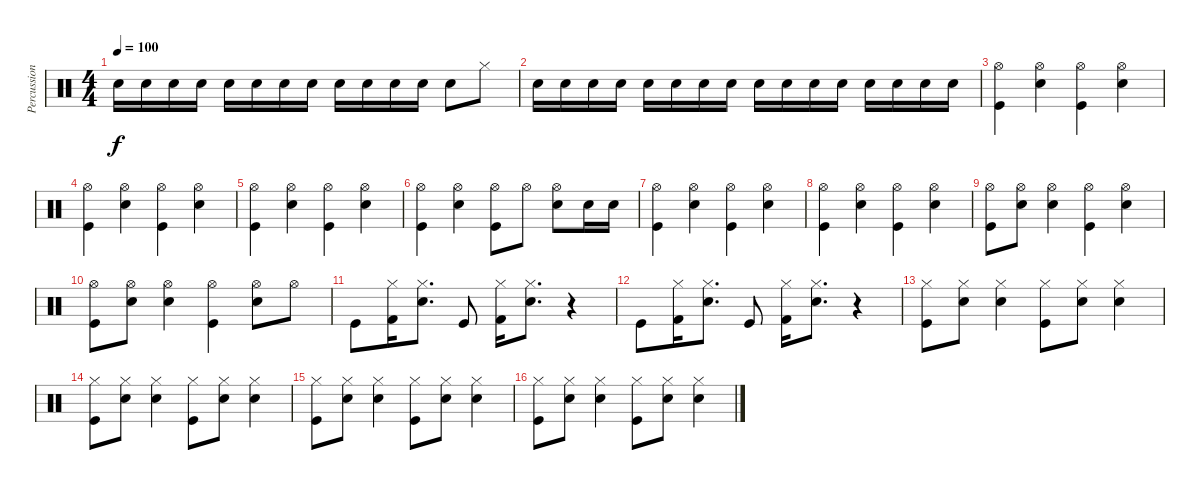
\track ("Percussion" "Percussion") {instrument percussion}
\staff {score}
\articulation defaults
\ts (4 4)
\tempo 100
\clef neutral
\ks c "Snare (hit) 2".16{dy f} "Snare (hit) 2".16 "Snare (hit) 2".16 "Snare (hit) 2".16 "Snare (hit) 2".16 "Snare (hit) 2".16 "Snare (hit) 2".16 "Snare (hit) 2".16 "Snare (hit) 2".16 "Snare (hit) 2".16 "Snare (hit) 2".16 "Snare (hit) 2".16 "Snare (hit) 2".8 "Hi-Hat (closed)".8
|
"Snare (hit) 2".16 "Snare (hit) 2".16 "Snare (hit) 2".16 "Snare (hit) 2".16 "Snare (hit) 2".16 "Snare (hit) 2".16 "Snare (hit) 2".16 "Snare (hit) 2".16 "Snare (hit) 2".16 "Snare (hit) 2".16 "Snare (hit) 2".16 "Snare (hit) 2".16 "Snare (hit) 2".16 "Snare (hit) 2".16 "Snare (hit) 2".16 "Snare (hit) 2".16 |
("Hi-Hat (open)" "Kick (hit)").4 ("Hi-Hat (open)" "Snare (hit) 2").4 ("Hi-Hat (open)" "Kick (hit)").4 ("Hi-Hat (open)" "Snare (hit) 2").4 |
("Hi-Hat (open)" "Kick (hit)").4 ("Hi-Hat (open)" "Snare (hit) 2").4 ("Hi-Hat (open)" "Kick (hit)").4 ("Hi-Hat (open)" "Snare (hit) 2").4 |
("Hi-Hat (open)" "Kick (hit)").4 ("Hi-Hat (open)" "Snare (hit) 2").4 ("Hi-Hat (open)" "Kick (hit)").4 ("Hi-Hat (open)" "Snare (hit) 2").4 |
("Hi-Hat (open)" "Kick (hit)").4 ("Hi-Hat (open)" "Snare (hit) 2").4 ("Hi-Hat (open)" "Kick (hit)").8 "Hi-Hat (open)".8 ("Hi-Hat (open)" "Snare (hit) 2").8 "Snare (hit) 2".16 "Snare (hit) 2".16 |
("Hi-Hat (open)" "Kick (hit)").4 ("Hi-Hat (open)" "Snare (hit) 2").4 ("Hi-Hat (open)" "Kick (hit)").4 ("Hi-Hat (open)" "Snare (hit) 2").4 |
("Hi-Hat (open)" "Kick (hit)").4 ("Hi-Hat (open)" "Snare (hit) 2").4 ("Hi-Hat (open)" "Kick (hit)").4 ("Hi-Hat (open)" "Snare (hit) 2").4 |
("Hi-Hat (open)" "Kick (hit)").8 ("Hi-Hat (open)" "Snare (hit) 2").8 ("Hi-Hat (open)" "Snare (hit) 2").4 ("Hi-Hat (open)" "Kick (hit)").4 ("Hi-Hat (open)" "Snare (hit) 2").4 |
("Hi-Hat (open)" "Kick (hit)").8 ("Hi-Hat (open)" "Snare (hit) 2").8 ("Hi-Hat (open)" "Snare (hit) 2").4 ("Hi-Hat (open)" "Kick (hit)").4 ("Hi-Hat (open)" "Snare (hit) 2").8 "Hi-Hat (open)".8 |
"Kick (hit)".8 ("Hi-Hat (closed)" "Kick (hit) 2").16 ("Hi-Hat (closed)" "Snare (hit) 2").8{d} "Kick (hit)".8 ("Hi-Hat (closed)" "Kick (hit) 2").16 ("Hi-Hat (closed)" "Snare (hit) 2").8{d} r.4 |
"Kick (hit)".8 ("Hi-Hat (closed)" "Kick (hit) 2").16 ("Hi-Hat (closed)" "Snare (hit) 2").8{d} "Kick (hit)".8 ("Hi-Hat (closed)" "Kick (hit) 2").16 ("Hi-Hat (closed)" "Snare (hit) 2").8{d} r.4 |
("Hi-Hat (closed)" "Kick (hit)").8 ("Hi-Hat (closed)" "Snare (hit) 2").8 ("Hi-Hat (closed)" "Snare (hit) 2").4 ("Hi-Hat (closed)" "Kick (hit)").8 ("Hi-Hat (closed)" "Snare (hit) 2").8 ("Hi-Hat (closed)" "Snare (hit) 2").4 |
("Hi-Hat (closed)" "Kick (hit)").8 ("Hi-Hat (closed)" "Snare (hit) 2").8 ("Hi-Hat (closed)" "Snare (hit) 2").4 ("Hi-Hat (closed)" "Kick (hit)").8 ("Hi-Hat (closed)" "Snare (hit) 2").8 ("Hi-Hat (closed)" "Snare (hit) 2").4 |
("Hi-Hat (closed)" "Kick (hit)").8 ("Hi-Hat (closed)" "Snare (hit) 2").8 ("Hi-Hat (closed)" "Snare (hit) 2").4 ("Hi-Hat (closed)" "Kick (hit)").8 ("Hi-Hat (closed)" "Snare (hit) 2").8 ("Hi-Hat (closed)" "Snare (hit) 2").4 |
("Hi-Hat (closed)" "Kick (hit)").8 ("Hi-Hat (closed)" "Snare (hit) 2").8 ("Hi-Hat (closed)" "Snare (hit) 2").4 ("Hi-Hat (closed)" "Kick (hit)").8 ("Hi-Hat (closed)" "Snare (hit) 2").8 ("Hi-Hat (closed)" "Snare (hit) 2").4
